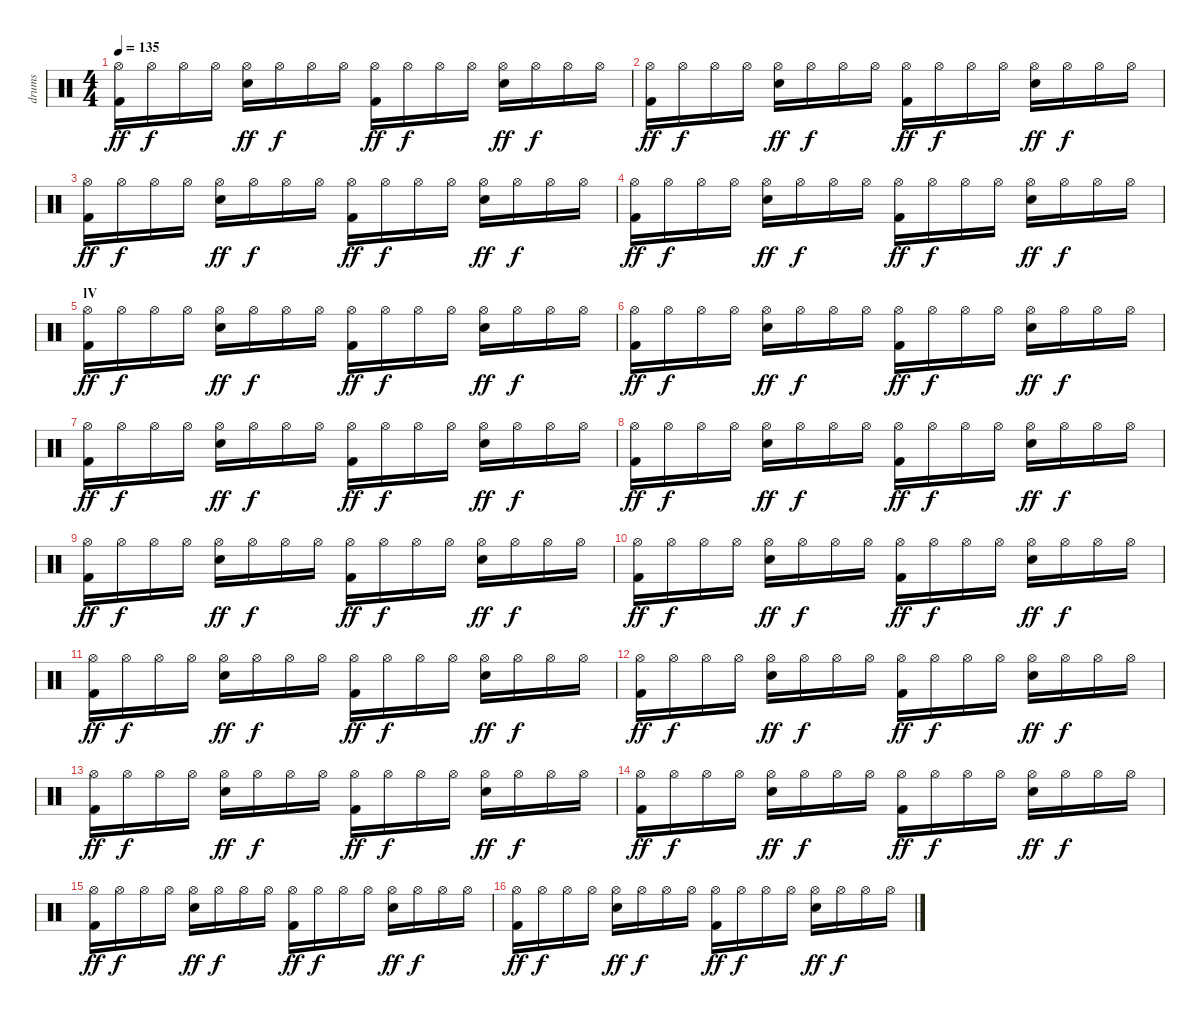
\track ("drums" "drums") {instrument percussion}
\staff {score}
\articulation defaults
\ts (4 4)
\tempo 135
\clef neutral
\ks c
("Hi-Hat (open)" "Kick (hit) 2").16{dy ff} "Hi-Hat (open)".16{dy f} "Hi-Hat (open)".16 "Hi-Hat (open)".16 ("Hi-Hat (open)" "Electric Snare (hit)").16{dy ff} "Hi-Hat (open)".16{dy f} "Hi-Hat (open)".16 "Hi-Hat (open)".16 ("Hi-Hat (open)" "Kick (hit) 2").16{dy ff} "Hi-Hat (open)".16{dy f} "Hi-Hat (open)".16 "Hi-Hat (open)".16 ("Hi-Hat (open)" "Electric Snare (hit)").16{dy ff} "Hi-Hat (open)".16{dy f} "Hi-Hat (open)".16 "Hi-Hat (open)".16 |
("Hi-Hat (open)" "Kick (hit) 2").16{dy ff} "Hi-Hat (open)".16{dy f} "Hi-Hat (open)".16 "Hi-Hat (open)".16 ("Hi-Hat (open)" "Electric Snare (hit)").16{dy ff} "Hi-Hat (open)".16{dy f} "Hi-Hat (open)".16 "Hi-Hat (open)".16 ("Hi-Hat (open)" "Kick (hit) 2").16{dy ff} "Hi-Hat (open)".16{dy f} "Hi-Hat (open)".16 "Hi-Hat (open)".16 ("Hi-Hat (open)" "Electric Snare (hit)").16{dy ff} "Hi-Hat (open)".16{dy f} "Hi-Hat (open)".16 "Hi-Hat (open)".16 |
("Hi-Hat (open)" "Kick (hit) 2").16{dy ff} "Hi-Hat (open)".16{dy f} "Hi-Hat (open)".16 "Hi-Hat (open)".16 ("Hi-Hat (open)" "Electric Snare (hit)").16{dy ff} "Hi-Hat (open)".16{dy f} "Hi-Hat (open)".16 "Hi-Hat (open)".16 ("Hi-Hat (open)" "Kick (hit) 2").16{dy ff} "Hi-Hat (open)".16{dy f} "Hi-Hat (open)".16 "Hi-Hat (open)".16 ("Hi-Hat (open)" "Electric Snare (hit)").16{dy ff} "Hi-Hat (open)".16{dy f} "Hi-Hat (open)".16 "Hi-Hat (open)".16 |
("Hi-Hat (open)" "Kick (hit) 2").16{dy ff} "Hi-Hat (open)".16{dy f} "Hi-Hat (open)".16 "Hi-Hat (open)".16 ("Hi-Hat (open)" "Electric Snare (hit)").16{dy ff} "Hi-Hat (open)".16{dy f} "Hi-Hat (open)".16 "Hi-Hat (open)".16 ("Hi-Hat (open)" "Kick (hit) 2").16{dy ff} "Hi-Hat (open)".16{dy f} "Hi-Hat (open)".16 "Hi-Hat (open)".16 ("Hi-Hat (open)" "Electric Snare (hit)").16{dy ff} "Hi-Hat (open)".16{dy f} "Hi-Hat (open)".16 "Hi-Hat (open)".16 |
\section ("" "lV")
("Hi-Hat (open)" "Kick (hit) 2").16{dy ff} "Hi-Hat (open)".16{dy f} "Hi-Hat (open)".16 "Hi-Hat (open)".16 ("Hi-Hat (open)" "Electric Snare (hit)").16{dy ff} "Hi-Hat (open)".16{dy f} "Hi-Hat (open)".16 "Hi-Hat (open)".16 ("Hi-Hat (open)" "Kick (hit) 2").16{dy ff} "Hi-Hat (open)".16{dy f} "Hi-Hat (open)".16 "Hi-Hat (open)".16 ("Hi-Hat (open)" "Electric Snare (hit)").16{dy ff} "Hi-Hat (open)".16{dy f} "Hi-Hat (open)".16 "Hi-Hat (open)".16 |
("Hi-Hat (open)" "Kick (hit) 2").16{dy ff} "Hi-Hat (open)".16{dy f} "Hi-Hat (open)".16 "Hi-Hat (open)".16 ("Hi-Hat (open)" "Electric Snare (hit)").16{dy ff} "Hi-Hat (open)".16{dy f} "Hi-Hat (open)".16 "Hi-Hat (open)".16 ("Hi-Hat (open)" "Kick (hit) 2").16{dy ff} "Hi-Hat (open)".16{dy f} "Hi-Hat (open)".16 "Hi-Hat (open)".16 ("Hi-Hat (open)" "Electric Snare (hit)").16{dy ff} "Hi-Hat (open)".16{dy f} "Hi-Hat (open)".16 "Hi-Hat (open)".16 |
("Hi-Hat (open)" "Kick (hit) 2").16{dy ff} "Hi-Hat (open)".16{dy f} "Hi-Hat (open)".16 "Hi-Hat (open)".16 ("Hi-Hat (open)" "Electric Snare (hit)").16{dy ff} "Hi-Hat (open)".16{dy f} "Hi-Hat (open)".16 "Hi-Hat (open)".16 ("Hi-Hat (open)" "Kick (hit) 2").16{dy ff} "Hi-Hat (open)".16{dy f} "Hi-Hat (open)".16 "Hi-Hat (open)".16 ("Hi-Hat (open)" "Electric Snare (hit)").16{dy ff} "Hi-Hat (open)".16{dy f} "Hi-Hat (open)".16 "Hi-Hat (open)".16 |
("Hi-Hat (open)" "Kick (hit) 2").16{dy ff} "Hi-Hat (open)".16{dy f} "Hi-Hat (open)".16 "Hi-Hat (open)".16 ("Hi-Hat (open)" "Electric Snare (hit)").16{dy ff} "Hi-Hat (open)".16{dy f} "Hi-Hat (open)".16 "Hi-Hat (open)".16 ("Hi-Hat (open)" "Kick (hit) 2").16{dy ff} "Hi-Hat (open)".16{dy f} "Hi-Hat (open)".16 "Hi-Hat (open)".16 ("Hi-Hat (open)" "Electric Snare (hit)").16{dy ff} "Hi-Hat (open)".16{dy f} "Hi-Hat (open)".16 "Hi-Hat (open)".16 |
("Hi-Hat (open)" "Kick (hit) 2").16{dy ff} "Hi-Hat (open)".16{dy f} "Hi-Hat (open)".16 "Hi-Hat (open)".16 ("Hi-Hat (open)" "Electric Snare (hit)").16{dy ff} "Hi-Hat (open)".16{dy f} "Hi-Hat (open)".16 "Hi-Hat (open)".16 ("Hi-Hat (open)" "Kick (hit) 2").16{dy ff} "Hi-Hat (open)".16{dy f} "Hi-Hat (open)".16 "Hi-Hat (open)".16 ("Hi-Hat (open)" "Electric Snare (hit)").16{dy ff} "Hi-Hat (open)".16{dy f} "Hi-Hat (open)".16 "Hi-Hat (open)".16 |
("Hi-Hat (open)" "Kick (hit) 2").16{dy ff} "Hi-Hat (open)".16{dy f} "Hi-Hat (open)".16 "Hi-Hat (open)".16 ("Hi-Hat (open)" "Electric Snare (hit)").16{dy ff} "Hi-Hat (open)".16{dy f} "Hi-Hat (open)".16 "Hi-Hat (open)".16 ("Hi-Hat (open)" "Kick (hit) 2").16{dy ff} "Hi-Hat (open)".16{dy f} "Hi-Hat (open)".16 "Hi-Hat (open)".16 ("Hi-Hat (open)" "Electric Snare (hit)").16{dy ff} "Hi-Hat (open)".16{dy f} "Hi-Hat (open)".16 "Hi-Hat (open)".16 |
("Hi-Hat (open)" "Kick (hit) 2").16{dy ff} "Hi-Hat (open)".16{dy f} "Hi-Hat (open)".16 "Hi-Hat (open)".16 ("Hi-Hat (open)" "Electric Snare (hit)").16{dy ff} "Hi-Hat (open)".16{dy f} "Hi-Hat (open)".16 "Hi-Hat (open)".16 ("Hi-Hat (open)" "Kick (hit) 2").16{dy ff} "Hi-Hat (open)".16{dy f} "Hi-Hat (open)".16 "Hi-Hat (open)".16 ("Hi-Hat (open)" "Electric Snare (hit)").16{dy ff} "Hi-Hat (open)".16{dy f} "Hi-Hat (open)".16 "Hi-Hat (open)".16 |
("Hi-Hat (open)" "Kick (hit) 2").16{dy ff} "Hi-Hat (open)".16{dy f} "Hi-Hat (open)".16 "Hi-Hat (open)".16 ("Hi-Hat (open)" "Electric Snare (hit)").16{dy ff} "Hi-Hat (open)".16{dy f} "Hi-Hat (open)".16 "Hi-Hat (open)".16 ("Hi-Hat (open)" "Kick (hit) 2").16{dy ff} "Hi-Hat (open)".16{dy f} "Hi-Hat (open)".16 "Hi-Hat (open)".16 ("Hi-Hat (open)" "Electric Snare (hit)").16{dy ff} "Hi-Hat (open)".16{dy f} "Hi-Hat (open)".16 "Hi-Hat (open)".16 |
("Hi-Hat (open)" "Kick (hit) 2").16{dy ff} "Hi-Hat (open)".16{dy f} "Hi-Hat (open)".16 "Hi-Hat (open)".16 ("Hi-Hat (open)" "Electric Snare (hit)").16{dy ff} "Hi-Hat (open)".16{dy f} "Hi-Hat (open)".16 "Hi-Hat (open)".16 ("Hi-Hat (open)" "Kick (hit) 2").16{dy ff} "Hi-Hat (open)".16{dy f} "Hi-Hat (open)".16 "Hi-Hat (open)".16 ("Hi-Hat (open)" "Electric Snare (hit)").16{dy ff} "Hi-Hat (open)".16{dy f} "Hi-Hat (open)".16 "Hi-Hat (open)".16 |
("Hi-Hat (open)" "Kick (hit) 2").16{dy ff} "Hi-Hat (open)".16{dy f} "Hi-Hat (open)".16 "Hi-Hat (open)".16 ("Hi-Hat (open)" "Electric Snare (hit)").16{dy ff} "Hi-Hat (open)".16{dy f} "Hi-Hat (open)".16 "Hi-Hat (open)".16 ("Hi-Hat (open)" "Kick (hit) 2").16{dy ff} "Hi-Hat (open)".16{dy f} "Hi-Hat (open)".16 "Hi-Hat (open)".16 ("Hi-Hat (open)" "Electric Snare (hit)").16{dy ff} "Hi-Hat (open)".16{dy f} "Hi-Hat (open)".16 "Hi-Hat (open)".16 |
("Hi-Hat (open)" "Kick (hit) 2").16{dy ff} "Hi-Hat (open)".16{dy f} "Hi-Hat (open)".16 "Hi-Hat (open)".16 ("Hi-Hat (open)" "Electric Snare (hit)").16{dy ff} "Hi-Hat (open)".16{dy f} "Hi-Hat (open)".16 "Hi-Hat (open)".16 ("Hi-Hat (open)" "Kick (hit) 2").16{dy ff} "Hi-Hat (open)".16{dy f} "Hi-Hat (open)".16 "Hi-Hat (open)".16 ("Hi-Hat (open)" "Electric Snare (hit)").16{dy ff} "Hi-Hat (open)".16{dy f} "Hi-Hat (open)".16 "Hi-Hat (open)".16 |
("Hi-Hat (open)" "Kick (hit) 2").16{dy ff} "Hi-Hat (open)".16{dy f} "Hi-Hat (open)".16 "Hi-Hat (open)".16 ("Hi-Hat (open)" "Electric Snare (hit)").16{dy ff} "Hi-Hat (open)".16{dy f} "Hi-Hat (open)".16 "Hi-Hat (open)".16 ("Hi-Hat (open)" "Kick (hit) 2").16{dy ff} "Hi-Hat (open)".16{dy f} "Hi-Hat (open)".16 "Hi-Hat (open)".16 ("Hi-Hat (open)" "Electric Snare (hit)").16{dy ff} "Hi-Hat (open)".16{dy f} "Hi-Hat (open)".16 "Hi-Hat (open)".16
